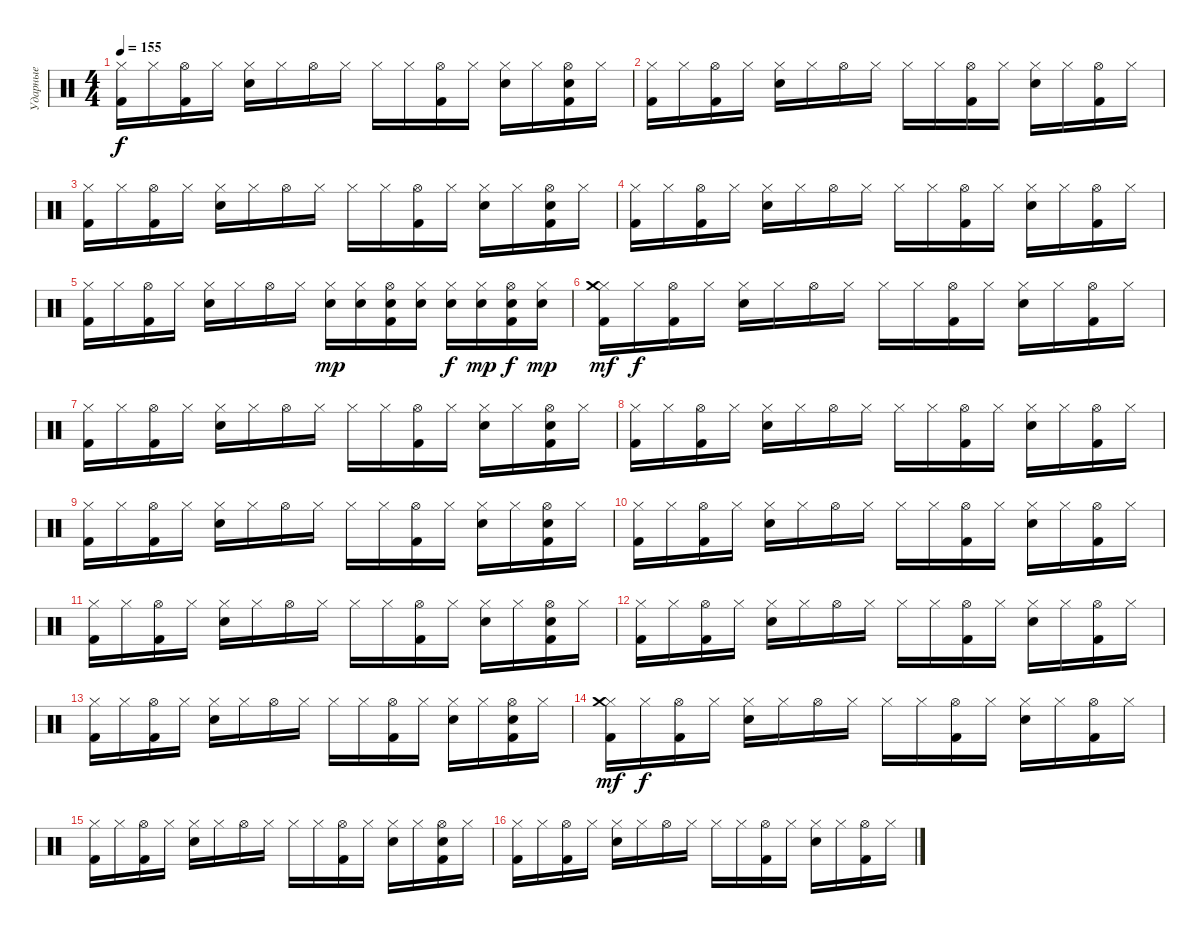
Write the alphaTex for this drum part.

\track ("Ударные" "Ударные") {instrument percussion}
\staff {score}
\articulation defaults
\ts (4 4)
\tempo 155
\clef neutral
\ks c
("Hi-Hat (closed)" "Kick (hit) 2").16{dy f} "Hi-Hat (closed)".16 ("Hi-Hat (open)" "Kick (hit) 2").16 "Hi-Hat (closed)".16 ("Hi-Hat (closed)" "Electric Snare (hit)").16 "Hi-Hat (closed)".16 "Hi-Hat (open)".16 "Hi-Hat (closed)".16 "Hi-Hat (closed)".16 "Hi-Hat (closed)".16 ("Hi-Hat (open)" "Kick (hit) 2").16 "Hi-Hat (closed)".16 ("Hi-Hat (closed)" "Electric Snare (hit)").16 "Hi-Hat (closed)".16 ("Hi-Hat (open)" "Kick (hit) 2" "Electric Snare (hit)").16 "Hi-Hat (closed)".16 |
("Hi-Hat (closed)" "Kick (hit) 2").16 "Hi-Hat (closed)".16 ("Hi-Hat (open)" "Kick (hit) 2").16 "Hi-Hat (closed)".16 ("Hi-Hat (closed)" "Electric Snare (hit)").16 "Hi-Hat (closed)".16 "Hi-Hat (open)".16 "Hi-Hat (closed)".16 "Hi-Hat (closed)".16 "Hi-Hat (closed)".16 ("Hi-Hat (open)" "Kick (hit) 2").16 "Hi-Hat (closed)".16 ("Hi-Hat (closed)" "Electric Snare (hit)").16 "Hi-Hat (closed)".16 ("Hi-Hat (open)" "Kick (hit) 2").16 "Hi-Hat (closed)".16 |
("Hi-Hat (closed)" "Kick (hit) 2").16 "Hi-Hat (closed)".16 ("Hi-Hat (open)" "Kick (hit) 2").16 "Hi-Hat (closed)".16 ("Hi-Hat (closed)" "Electric Snare (hit)").16 "Hi-Hat (closed)".16 "Hi-Hat (open)".16 "Hi-Hat (closed)".16 "Hi-Hat (closed)".16 "Hi-Hat (closed)".16 ("Hi-Hat (open)" "Kick (hit) 2").16 "Hi-Hat (closed)".16 ("Hi-Hat (closed)" "Electric Snare (hit)").16 "Hi-Hat (closed)".16 ("Hi-Hat (open)" "Kick (hit) 2" "Electric Snare (hit)").16 "Hi-Hat (closed)".16 |
("Hi-Hat (closed)" "Kick (hit) 2").16 "Hi-Hat (closed)".16 ("Hi-Hat (open)" "Kick (hit) 2").16 "Hi-Hat (closed)".16 ("Hi-Hat (closed)" "Electric Snare (hit)").16 "Hi-Hat (closed)".16 "Hi-Hat (open)".16 "Hi-Hat (closed)".16 "Hi-Hat (closed)".16 "Hi-Hat (closed)".16 ("Hi-Hat (open)" "Kick (hit) 2").16 "Hi-Hat (closed)".16 ("Hi-Hat (closed)" "Electric Snare (hit)").16 "Hi-Hat (closed)".16 ("Hi-Hat (open)" "Kick (hit) 2").16 "Hi-Hat (closed)".16 |
("Hi-Hat (closed)" "Kick (hit) 2").16 "Hi-Hat (closed)".16 ("Hi-Hat (open)" "Kick (hit) 2").16 "Hi-Hat (closed)".16 ("Hi-Hat (closed)" "Electric Snare (hit)").16 "Hi-Hat (closed)".16 "Hi-Hat (open)".16 "Hi-Hat (closed)".16 ("Hi-Hat (closed)" "Electric Snare (hit)").16{dy mp} ("Hi-Hat (closed)" "Electric Snare (hit)").16 ("Hi-Hat (open)" "Kick (hit) 2" "Electric Snare (hit)").16 ("Hi-Hat (closed)" "Electric Snare (hit)").16 ("Hi-Hat (closed)" "Electric Snare (hit)").16{dy f} ("Hi-Hat (closed)" "Electric Snare (hit)").16{dy mp} ("Hi-Hat (open)" "Kick (hit) 2" "Electric Snare (hit)").16{dy f} ("Hi-Hat (closed)" "Electric Snare (hit)").16{dy mp} |
("Hi-Hat (closed)" "Kick (hit) 2" "Crash medium (hit)").16{dy mf} "Hi-Hat (closed)".16{dy f} ("Hi-Hat (open)" "Kick (hit) 2").16 "Hi-Hat (closed)".16 ("Hi-Hat (closed)" "Electric Snare (hit)").16 "Hi-Hat (closed)".16 "Hi-Hat (open)".16 "Hi-Hat (closed)".16 "Hi-Hat (closed)".16 "Hi-Hat (closed)".16 ("Hi-Hat (open)" "Kick (hit) 2").16 "Hi-Hat (closed)".16 ("Hi-Hat (closed)" "Electric Snare (hit)").16 "Hi-Hat (closed)".16 ("Hi-Hat (open)" "Kick (hit) 2").16 "Hi-Hat (closed)".16 |
("Hi-Hat (closed)" "Kick (hit) 2").16 "Hi-Hat (closed)".16 ("Hi-Hat (open)" "Kick (hit) 2").16 "Hi-Hat (closed)".16 ("Hi-Hat (closed)" "Electric Snare (hit)").16 "Hi-Hat (closed)".16 "Hi-Hat (open)".16 "Hi-Hat (closed)".16 "Hi-Hat (closed)".16 "Hi-Hat (closed)".16 ("Hi-Hat (open)" "Kick (hit) 2").16 "Hi-Hat (closed)".16 ("Hi-Hat (closed)" "Electric Snare (hit)").16 "Hi-Hat (closed)".16 ("Hi-Hat (open)" "Kick (hit) 2" "Electric Snare (hit)").16 "Hi-Hat (closed)".16 |
("Hi-Hat (closed)" "Kick (hit) 2").16 "Hi-Hat (closed)".16 ("Hi-Hat (open)" "Kick (hit) 2").16 "Hi-Hat (closed)".16 ("Hi-Hat (closed)" "Electric Snare (hit)").16 "Hi-Hat (closed)".16 "Hi-Hat (open)".16 "Hi-Hat (closed)".16 "Hi-Hat (closed)".16 "Hi-Hat (closed)".16 ("Hi-Hat (open)" "Kick (hit) 2").16 "Hi-Hat (closed)".16 ("Hi-Hat (closed)" "Electric Snare (hit)").16 "Hi-Hat (closed)".16 ("Hi-Hat (open)" "Kick (hit) 2").16 "Hi-Hat (closed)".16 |
("Hi-Hat (closed)" "Kick (hit) 2").16 "Hi-Hat (closed)".16 ("Hi-Hat (open)" "Kick (hit) 2").16 "Hi-Hat (closed)".16 ("Hi-Hat (closed)" "Electric Snare (hit)").16 "Hi-Hat (closed)".16 "Hi-Hat (open)".16 "Hi-Hat (closed)".16 "Hi-Hat (closed)".16 "Hi-Hat (closed)".16 ("Hi-Hat (open)" "Kick (hit) 2").16 "Hi-Hat (closed)".16 ("Hi-Hat (closed)" "Electric Snare (hit)").16 "Hi-Hat (closed)".16 ("Hi-Hat (open)" "Kick (hit) 2" "Electric Snare (hit)").16 "Hi-Hat (closed)".16 |
("Hi-Hat (closed)" "Kick (hit) 2").16 "Hi-Hat (closed)".16 ("Hi-Hat (open)" "Kick (hit) 2").16 "Hi-Hat (closed)".16 ("Hi-Hat (closed)" "Electric Snare (hit)").16 "Hi-Hat (closed)".16 "Hi-Hat (open)".16 "Hi-Hat (closed)".16 "Hi-Hat (closed)".16 "Hi-Hat (closed)".16 ("Hi-Hat (open)" "Kick (hit) 2").16 "Hi-Hat (closed)".16 ("Hi-Hat (closed)" "Electric Snare (hit)").16 "Hi-Hat (closed)".16 ("Hi-Hat (open)" "Kick (hit) 2").16 "Hi-Hat (closed)".16 |
("Hi-Hat (closed)" "Kick (hit) 2").16 "Hi-Hat (closed)".16 ("Hi-Hat (open)" "Kick (hit) 2").16 "Hi-Hat (closed)".16 ("Hi-Hat (closed)" "Electric Snare (hit)").16 "Hi-Hat (closed)".16 "Hi-Hat (open)".16 "Hi-Hat (closed)".16 "Hi-Hat (closed)".16 "Hi-Hat (closed)".16 ("Hi-Hat (open)" "Kick (hit) 2").16 "Hi-Hat (closed)".16 ("Hi-Hat (closed)" "Electric Snare (hit)").16 "Hi-Hat (closed)".16 ("Hi-Hat (open)" "Kick (hit) 2" "Electric Snare (hit)").16 "Hi-Hat (closed)".16 |
("Hi-Hat (closed)" "Kick (hit) 2").16 "Hi-Hat (closed)".16 ("Hi-Hat (open)" "Kick (hit) 2").16 "Hi-Hat (closed)".16 ("Hi-Hat (closed)" "Electric Snare (hit)").16 "Hi-Hat (closed)".16 "Hi-Hat (open)".16 "Hi-Hat (closed)".16 "Hi-Hat (closed)".16 "Hi-Hat (closed)".16 ("Hi-Hat (open)" "Kick (hit) 2").16 "Hi-Hat (closed)".16 ("Hi-Hat (closed)" "Electric Snare (hit)").16 "Hi-Hat (closed)".16 ("Hi-Hat (open)" "Kick (hit) 2").16 "Hi-Hat (closed)".16 |
("Hi-Hat (closed)" "Kick (hit) 2").16 "Hi-Hat (closed)".16 ("Hi-Hat (open)" "Kick (hit) 2").16 "Hi-Hat (closed)".16 ("Hi-Hat (closed)" "Electric Snare (hit)").16 "Hi-Hat (closed)".16 "Hi-Hat (open)".16 "Hi-Hat (closed)".16 "Hi-Hat (closed)".16 "Hi-Hat (closed)".16 ("Hi-Hat (open)" "Kick (hit) 2").16 "Hi-Hat (closed)".16 ("Hi-Hat (closed)" "Electric Snare (hit)").16 "Hi-Hat (closed)".16 ("Hi-Hat (open)" "Kick (hit) 2" "Electric Snare (hit)").16 "Hi-Hat (closed)".16 |
("Hi-Hat (closed)" "Kick (hit) 2" "Crash medium (hit)").16{dy mf} "Hi-Hat (closed)".16{dy f} ("Hi-Hat (open)" "Kick (hit) 2").16 "Hi-Hat (closed)".16 ("Hi-Hat (closed)" "Electric Snare (hit)").16 "Hi-Hat (closed)".16 "Hi-Hat (open)".16 "Hi-Hat (closed)".16 "Hi-Hat (closed)".16 "Hi-Hat (closed)".16 ("Hi-Hat (open)" "Kick (hit) 2").16 "Hi-Hat (closed)".16 ("Hi-Hat (closed)" "Electric Snare (hit)").16 "Hi-Hat (closed)".16 ("Hi-Hat (open)" "Kick (hit) 2").16 "Hi-Hat (closed)".16 |
("Hi-Hat (closed)" "Kick (hit) 2").16 "Hi-Hat (closed)".16 ("Hi-Hat (open)" "Kick (hit) 2").16 "Hi-Hat (closed)".16 ("Hi-Hat (closed)" "Electric Snare (hit)").16 "Hi-Hat (closed)".16 "Hi-Hat (open)".16 "Hi-Hat (closed)".16 "Hi-Hat (closed)".16 "Hi-Hat (closed)".16 ("Hi-Hat (open)" "Kick (hit) 2").16 "Hi-Hat (closed)".16 ("Hi-Hat (closed)" "Electric Snare (hit)").16 "Hi-Hat (closed)".16 ("Hi-Hat (open)" "Kick (hit) 2" "Electric Snare (hit)").16 "Hi-Hat (closed)".16 |
("Hi-Hat (closed)" "Kick (hit) 2").16 "Hi-Hat (closed)".16 ("Hi-Hat (open)" "Kick (hit) 2").16 "Hi-Hat (closed)".16 ("Hi-Hat (closed)" "Electric Snare (hit)").16 "Hi-Hat (closed)".16 "Hi-Hat (open)".16 "Hi-Hat (closed)".16 "Hi-Hat (closed)".16 "Hi-Hat (closed)".16 ("Hi-Hat (open)" "Kick (hit) 2").16 "Hi-Hat (closed)".16 ("Hi-Hat (closed)" "Electric Snare (hit)").16 "Hi-Hat (closed)".16 ("Hi-Hat (open)" "Kick (hit) 2").16 "Hi-Hat (closed)".16
